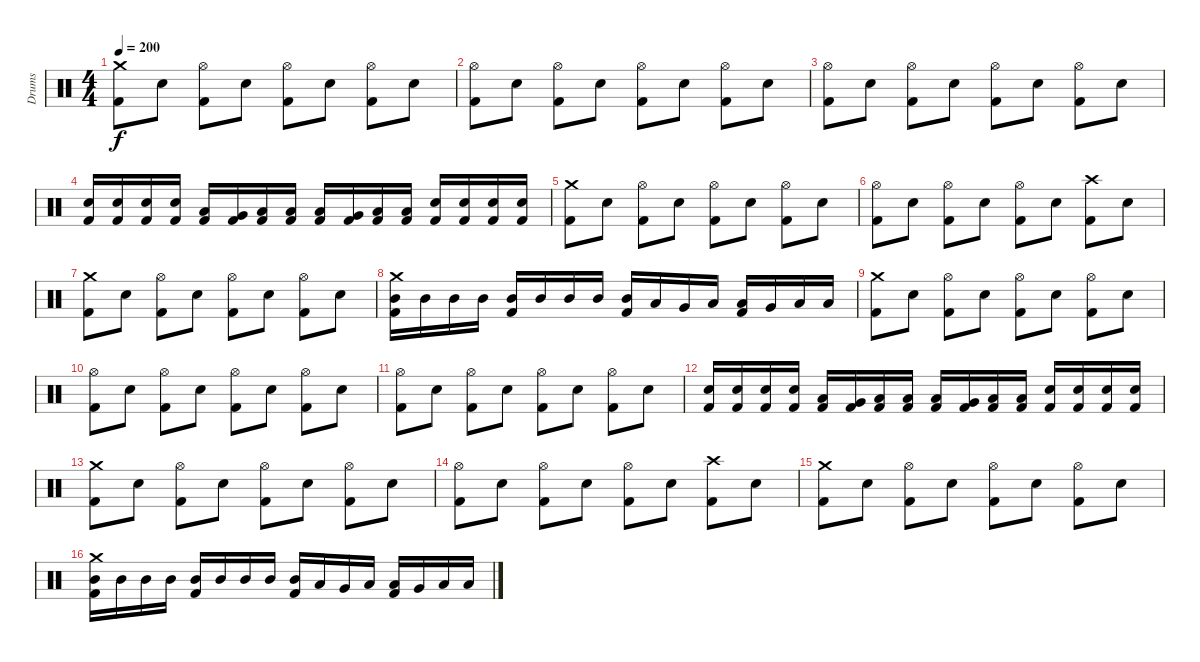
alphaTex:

\track ("Drums" "Drums") {instrument percussion}
\staff {score}
\articulation defaults
\ts (4 4)
\tempo 200
\clef neutral
\ks c
("Crash medium (hit)" "Kick (hit) 2").8{dy f} "Electric Snare (hit)".8 ("Hi-Hat (open)" "Kick (hit) 2").8 "Electric Snare (hit)".8 ("Hi-Hat (open)" "Kick (hit) 2").8 "Electric Snare (hit)".8 ("Hi-Hat (open)" "Kick (hit) 2").8 "Electric Snare (hit)".8 |
("Hi-Hat (open)" "Kick (hit) 2").8 "Electric Snare (hit)".8 ("Hi-Hat (open)" "Kick (hit) 2").8 "Electric Snare (hit)".8 ("Hi-Hat (open)" "Kick (hit) 2").8 "Electric Snare (hit)".8 ("Hi-Hat (open)" "Kick (hit) 2").8 "Electric Snare (hit)".8 |
("Hi-Hat (open)" "Kick (hit) 2").8 "Electric Snare (hit)".8 ("Hi-Hat (open)" "Kick (hit) 2").8 "Electric Snare (hit)".8 ("Hi-Hat (open)" "Kick (hit) 2").8 "Electric Snare (hit)".8 ("Hi-Hat (open)" "Kick (hit) 2").8 "Electric Snare (hit)".8 |
("Electric Snare (hit)" "Kick (hit) 2").16 ("Electric Snare (hit)" "Kick (hit) 2").16 ("Electric Snare (hit)" "Kick (hit) 2").16 ("Electric Snare (hit)" "Kick (hit) 2").16 ("Low Tom (hit)" "Kick (hit) 2").16 ("Very Low Tom (hit)" "Kick (hit) 2").16 ("Low Floor Tom (hit)" "Kick (hit) 2").16 ("Low Floor Tom (hit)" "Kick (hit) 2").16 ("Low Tom (hit)" "Kick (hit) 2").16 ("Very Low Tom (hit)" "Kick (hit) 2").16 ("Low Floor Tom (hit)" "Kick (hit) 2").16 ("Low Floor Tom (hit)" "Kick (hit) 2").16 ("Electric Snare (hit)" "Kick (hit) 2").16 ("Electric Snare (hit)" "Kick (hit) 2").16 ("Electric Snare (hit)" "Kick (hit) 2").16 ("Electric Snare (hit)" "Kick (hit) 2").16 |
("Crash medium (hit)" "Kick (hit) 2").8 "Electric Snare (hit)".8 ("Hi-Hat (open)" "Kick (hit) 2").8 "Electric Snare (hit)".8 ("Hi-Hat (open)" "Kick (hit) 2").8 "Electric Snare (hit)".8 ("Hi-Hat (open)" "Kick (hit) 2").8 "Electric Snare (hit)".8 |
("Hi-Hat (open)" "Kick (hit) 2").8 "Electric Snare (hit)".8 ("Hi-Hat (open)" "Kick (hit) 2").8 "Electric Snare (hit)".8 ("Hi-Hat (open)" "Kick (hit) 2").8 "Electric Snare (hit)".8 ("Crash high (hit)" "Kick (hit) 2").8 "Electric Snare (hit)".8 |
("Crash medium (hit)" "Kick (hit) 2").8 "Electric Snare (hit)".8 ("Hi-Hat (open)" "Kick (hit) 2").8 "Electric Snare (hit)".8 ("Hi-Hat (open)" "Kick (hit) 2").8 "Electric Snare (hit)".8 ("Hi-Hat (open)" "Kick (hit) 2").8 "Electric Snare (hit)".8 |
("Crash medium (hit)" "Mid Tom (hit)" "Kick (hit) 2").16 "Mid Tom (hit)".16 "Mid Tom (hit)".16 "Mid Tom (hit)".16 ("Mid Tom (hit)" "Kick (hit) 2").16 "Mid Tom (hit)".16 "Mid Tom (hit)".16 "Mid Tom (hit)".16 ("Mid Tom (hit)" "Kick (hit) 2").16 "Low Tom (hit)".16 "Very Low Tom (hit)".16 "Low Floor Tom (hit)".16 ("Low Tom (hit)" "Kick (hit) 2").16 "Very Low Tom (hit)".16 "Low Floor Tom (hit)".16 "Low Floor Tom (hit)".16 |
("Crash medium (hit)" "Kick (hit) 2").8 "Electric Snare (hit)".8 ("Hi-Hat (open)" "Kick (hit) 2").8 "Electric Snare (hit)".8 ("Hi-Hat (open)" "Kick (hit) 2").8 "Electric Snare (hit)".8 ("Hi-Hat (open)" "Kick (hit) 2").8 "Electric Snare (hit)".8 |
("Hi-Hat (open)" "Kick (hit) 2").8 "Electric Snare (hit)".8 ("Hi-Hat (open)" "Kick (hit) 2").8 "Electric Snare (hit)".8 ("Hi-Hat (open)" "Kick (hit) 2").8 "Electric Snare (hit)".8 ("Hi-Hat (open)" "Kick (hit) 2").8 "Electric Snare (hit)".8 |
("Hi-Hat (open)" "Kick (hit) 2").8 "Electric Snare (hit)".8 ("Hi-Hat (open)" "Kick (hit) 2").8 "Electric Snare (hit)".8 ("Hi-Hat (open)" "Kick (hit) 2").8 "Electric Snare (hit)".8 ("Hi-Hat (open)" "Kick (hit) 2").8 "Electric Snare (hit)".8 |
("Electric Snare (hit)" "Kick (hit) 2").16 ("Electric Snare (hit)" "Kick (hit) 2").16 ("Electric Snare (hit)" "Kick (hit) 2").16 ("Electric Snare (hit)" "Kick (hit) 2").16 ("Low Tom (hit)" "Kick (hit) 2").16 ("Very Low Tom (hit)" "Kick (hit) 2").16 ("Low Floor Tom (hit)" "Kick (hit) 2").16 ("Low Floor Tom (hit)" "Kick (hit) 2").16 ("Low Tom (hit)" "Kick (hit) 2").16 ("Very Low Tom (hit)" "Kick (hit) 2").16 ("Low Floor Tom (hit)" "Kick (hit) 2").16 ("Low Floor Tom (hit)" "Kick (hit) 2").16 ("Electric Snare (hit)" "Kick (hit) 2").16 ("Electric Snare (hit)" "Kick (hit) 2").16 ("Electric Snare (hit)" "Kick (hit) 2").16 ("Electric Snare (hit)" "Kick (hit) 2").16 |
("Crash medium (hit)" "Kick (hit) 2").8 "Electric Snare (hit)".8 ("Hi-Hat (open)" "Kick (hit) 2").8 "Electric Snare (hit)".8 ("Hi-Hat (open)" "Kick (hit) 2").8 "Electric Snare (hit)".8 ("Hi-Hat (open)" "Kick (hit) 2").8 "Electric Snare (hit)".8 |
("Hi-Hat (open)" "Kick (hit) 2").8 "Electric Snare (hit)".8 ("Hi-Hat (open)" "Kick (hit) 2").8 "Electric Snare (hit)".8 ("Hi-Hat (open)" "Kick (hit) 2").8 "Electric Snare (hit)".8 ("Crash high (hit)" "Kick (hit) 2").8 "Electric Snare (hit)".8 |
("Crash medium (hit)" "Kick (hit) 2").8 "Electric Snare (hit)".8 ("Hi-Hat (open)" "Kick (hit) 2").8 "Electric Snare (hit)".8 ("Hi-Hat (open)" "Kick (hit) 2").8 "Electric Snare (hit)".8 ("Hi-Hat (open)" "Kick (hit) 2").8 "Electric Snare (hit)".8 |
("Crash medium (hit)" "Mid Tom (hit)" "Kick (hit) 2").16 "Mid Tom (hit)".16 "Mid Tom (hit)".16 "Mid Tom (hit)".16 ("Mid Tom (hit)" "Kick (hit) 2").16 "Mid Tom (hit)".16 "Mid Tom (hit)".16 "Mid Tom (hit)".16 ("Mid Tom (hit)" "Kick (hit) 2").16 "Low Tom (hit)".16 "Very Low Tom (hit)".16 "Low Floor Tom (hit)".16 ("Low Tom (hit)" "Kick (hit) 2").16 "Very Low Tom (hit)".16 "Low Floor Tom (hit)".16 "Low Floor Tom (hit)".16
